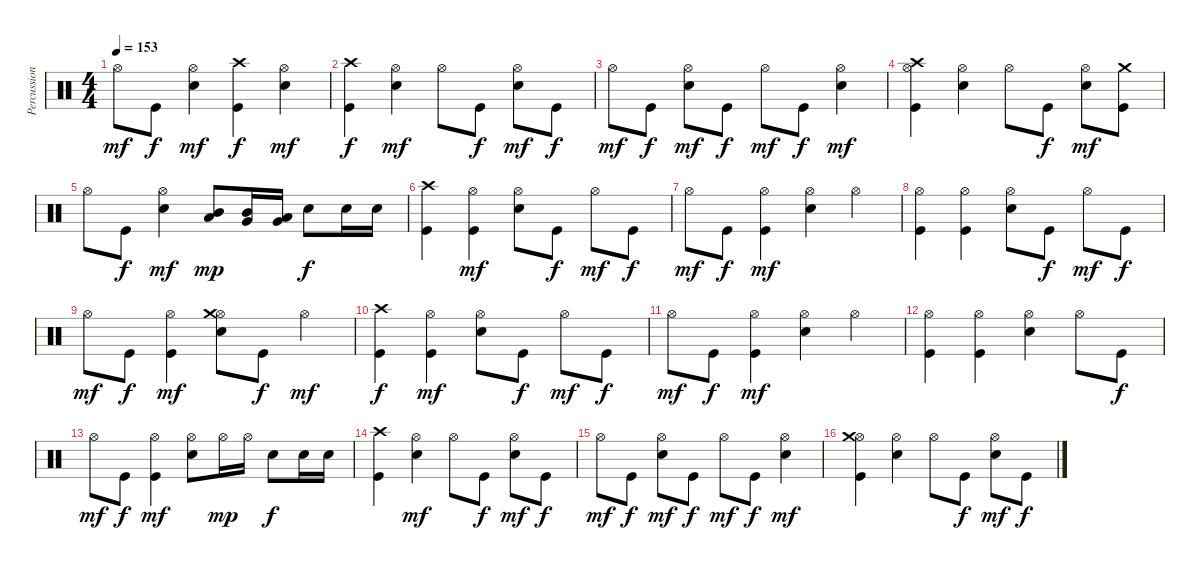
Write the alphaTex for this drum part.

\track ("Percussions" "Percussion") {instrument percussion}
\staff {score}
\articulation defaults
\ts (4 4)
\tempo 153
\clef neutral
\ks c "Hi-Hat (open)".8{dy mf} "Kick (hit)".8{dy f}
("Electric Snare (hit)" "Hi-Hat (open)").4{dy mf} ("Kick (hit)" "Crash high (hit)").4{dy f} ("Electric Snare (hit)" "Hi-Hat (open)").4{dy mf} |
("Kick (hit)" "Crash high (hit)").4{dy f} ("Electric Snare (hit)" "Hi-Hat (open)").4{dy mf} "Hi-Hat (open)".8 "Kick (hit)".8{dy f} ("Electric Snare (hit)" "Hi-Hat (open)").8{dy mf} "Kick (hit)".8{dy f} |
"Hi-Hat (open)".8{dy mf} "Kick (hit)".8{dy f} ("Electric Snare (hit)" "Hi-Hat (open)").8{dy mf} "Kick (hit)".8{dy f} "Hi-Hat (open)".8{dy mf} "Kick (hit)".8{dy f} ("Electric Snare (hit)" "Hi-Hat (open)").4{dy mf} |
("Kick (hit)" "Hi-Hat (open)" "Crash high (hit)").4 ("Electric Snare (hit)" "Hi-Hat (open)").4 "Hi-Hat (open)".8 "Kick (hit)".8{dy f} ("Electric Snare (hit)" "Hi-Hat (open)").8{dy mf} ("Kick (hit)" "Crash medium (hit)").8 |
"Hi-Hat (open)".8 "Kick (hit)".8{dy f} ("Electric Snare (hit)" "Hi-Hat (open)").4{dy mf} ("Mid Tom (hit)" "Low Tom (hit)").8{dy mp} ("Mid Tom (hit)" "Very Low Tom (hit)").16 ("Low Tom (hit)" "Very Low Tom (hit)").16 "Electric Snare (hit)".8{dy f} "Electric Snare (hit)".16 "Electric Snare (hit)".16 |
("Kick (hit)" "Crash high (hit)").4 ("Kick (hit)" "Hi-Hat (open)").4{dy mf} ("Electric Snare (hit)" "Hi-Hat (open)").8 "Kick (hit)".8{dy f} "Hi-Hat (open)".8{dy mf} "Kick (hit)".8{dy f} |
"Hi-Hat (open)".8{dy mf} "Kick (hit)".8{dy f} ("Kick (hit)" "Hi-Hat (open)").4{dy mf} ("Electric Snare (hit)" "Hi-Hat (open)").4 "Hi-Hat (open)".4 |
("Kick (hit)" "Hi-Hat (open)").4 ("Kick (hit)" "Hi-Hat (open)").4 ("Electric Snare (hit)" "Hi-Hat (open)").8 "Kick (hit)".8{dy f} "Hi-Hat (open)".8{dy mf} "Kick (hit)".8{dy f} |
"Hi-Hat (open)".8{dy mf} "Kick (hit)".8{dy f} ("Kick (hit)" "Hi-Hat (open)").4{dy mf} ("Electric Snare (hit)" "Hi-Hat (open)" "Crash medium (hit)").8 "Kick (hit)".8{dy f} "Hi-Hat (open)".4{dy mf} |
("Kick (hit)" "Crash high (hit)").4{dy f} ("Kick (hit)" "Hi-Hat (open)").4{dy mf} ("Electric Snare (hit)" "Hi-Hat (open)").8 "Kick (hit)".8{dy f} "Hi-Hat (open)".8{dy mf} "Kick (hit)".8{dy f} |
"Hi-Hat (open)".8{dy mf} "Kick (hit)".8{dy f} ("Kick (hit)" "Hi-Hat (open)").4{dy mf} ("Electric Snare (hit)" "Hi-Hat (open)").4 "Hi-Hat (open)".4 |
("Kick (hit)" "Hi-Hat (open)").4 ("Kick (hit)" "Hi-Hat (open)").4 ("Electric Snare (hit)" "Hi-Hat (open)").4 "Hi-Hat (open)".8 "Kick (hit)".8{dy f} |
"Hi-Hat (open)".8{dy mf} "Kick (hit)".8{dy f} ("Kick (hit)" "Hi-Hat (open)").4{dy mf} ("Electric Snare (hit)" "Hi-Hat (open)").8 "Hi-Hat (open)".16{dy mp} "Hi-Hat (open)".16 "Electric Snare (hit)".8{dy f} "Electric Snare (hit)".16 "Electric Snare (hit)".16 |
("Kick (hit)" "Crash high (hit)").4 ("Electric Snare (hit)" "Hi-Hat (open)").4{dy mf} "Hi-Hat (open)".8 "Kick (hit)".8{dy f} ("Electric Snare (hit)" "Hi-Hat (open)").8{dy mf} "Kick (hit)".8{dy f} |
"Hi-Hat (open)".8{dy mf} "Kick (hit)".8{dy f} ("Electric Snare (hit)" "Hi-Hat (open)").8{dy mf} "Kick (hit)".8{dy f} "Hi-Hat (open)".8{dy mf} "Kick (hit)".8{dy f} ("Electric Snare (hit)" "Hi-Hat (open)").4{dy mf} |
("Kick (hit)" "Hi-Hat (open)" "Crash medium (hit)").4 ("Electric Snare (hit)" "Hi-Hat (open)").4 "Hi-Hat (open)".8 "Kick (hit)".8{dy f} ("Electric Snare (hit)" "Hi-Hat (open)").8{dy mf} "Kick (hit)".8{dy f}
